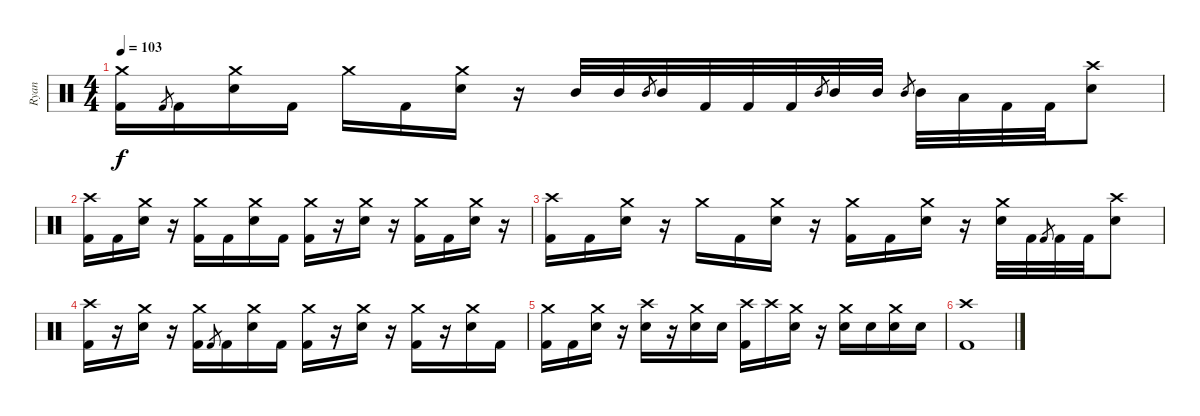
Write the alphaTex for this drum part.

\track ("Ryan" "Ryan") {instrument percussion}
\staff {score}
\articulation defaults
\ts (4 4)
\tempo 103
\clef neutral
\ks c
("Crash medium (hit)" "Kick (hit) 2").16{dy f} "Kick (hit) 2".8{gr} "Kick (hit) 2".16 ("Crash medium (hit)" "Electric Snare (hit)").16 "Kick (hit) 2".16 "Crash medium (hit)".16 "Kick (hit) 2".16 ("Crash medium (hit)" "Electric Snare (hit)").16 r.16 "Mid Tom (hit)".32 "Mid Tom (hit)".32 "Mid Tom (hit)".8{gr} "Mid Tom (hit)".32 "Kick (hit) 2".32 "Kick (hit) 2".32 "Kick (hit) 2".32 "Mid Tom (hit)".8{gr} "Mid Tom (hit)".32 "Mid Tom (hit)".32 "Mid Tom (hit)".8{gr} "Mid Tom (hit)".32 "Low Tom (hit)".32 "Kick (hit) 2".32 "Kick (hit) 2".32 ("Crash high (hit)" "Electric Snare (hit)").8 |
("Crash high (hit)" "Kick (hit) 2").16 "Kick (hit) 2".16 ("Crash medium (hit)" "Electric Snare (hit)").16 r.16 ("Crash medium (hit)" "Kick (hit) 2").16 "Kick (hit) 2".16 ("Crash medium (hit)" "Electric Snare (hit)").16 "Kick (hit) 2".16 ("Crash medium (hit)" "Kick (hit) 2").16 r.16 ("Crash medium (hit)" "Electric Snare (hit)").16 r.16 ("Crash medium (hit)" "Kick (hit) 2").16 "Kick (hit) 2".16 ("Crash medium (hit)" "Electric Snare (hit)").16 r.16 |
("Crash high (hit)" "Kick (hit) 2").16 "Kick (hit) 2".16 ("Crash medium (hit)" "Electric Snare (hit)").16 r.16 "Crash medium (hit)".16 "Kick (hit) 2".16 ("Crash medium (hit)" "Electric Snare (hit)").16 r.16 ("Crash medium (hit)" "Kick (hit) 2").16 "Kick (hit) 2".16 ("Crash medium (hit)" "Electric Snare (hit)").16 r.16 ("Crash medium (hit)" "Electric Snare (hit)").32 "Kick (hit) 2".32 "Kick (hit) 2".8{gr} "Kick (hit) 2".32 "Kick (hit) 2".32 ("Crash high (hit)" "Electric Snare (hit)").8 |
("Crash high (hit)" "Kick (hit) 2").16 r.16 ("Crash medium (hit)" "Electric Snare (hit)").16 r.16 ("Crash medium (hit)" "Kick (hit) 2").16 "Kick (hit) 2".8{gr} "Kick (hit) 2".16 ("Crash medium (hit)" "Electric Snare (hit)").16 "Kick (hit) 2".16 ("Crash medium (hit)" "Kick (hit) 2").16 r.16 ("Crash medium (hit)" "Electric Snare (hit)").16 r.16 ("Crash medium (hit)" "Kick (hit) 2").16 r.16 ("Crash medium (hit)" "Electric Snare (hit)").16 "Kick (hit) 2".16 |
("Crash medium (hit)" "Kick (hit) 2").16 "Kick (hit) 2".16 ("Crash medium (hit)" "Electric Snare (hit)").16 r.16 ("Crash high (hit)" "Electric Snare (hit)").16 r.16 ("Crash medium (hit)" "Electric Snare (hit)").16 "Electric Snare (hit)".16 ("Crash high (hit)" "Kick (hit) 2").16 "Crash high (hit)".16 ("Crash medium (hit)" "Electric Snare (hit)").16 r.16 ("Crash medium (hit)" "Electric Snare (hit)").16 "Electric Snare (hit)".16 ("Crash medium (hit)" "Electric Snare (hit)").16 "Electric Snare (hit)".16 |
("Crash high (hit)" "Kick (hit) 2").1
